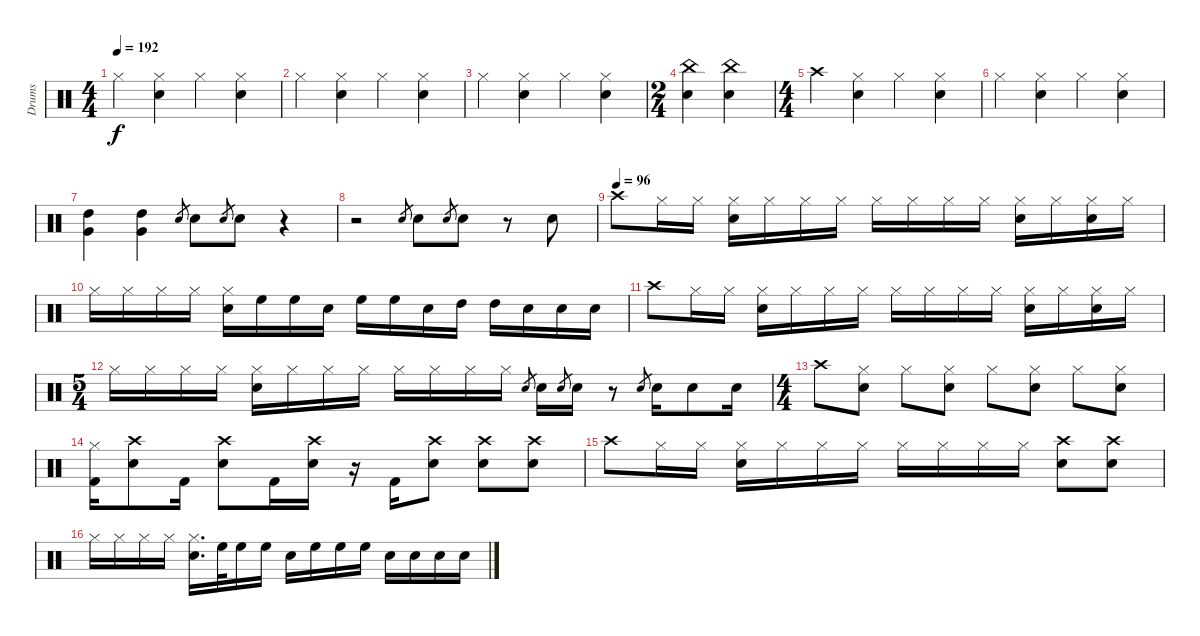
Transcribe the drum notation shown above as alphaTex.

\track ("Drums" "Drums") {instrument percussion}
\staff {score}
\articulation defaults
\ts (4 4)
\tempo 192
\clef neutral
\ks c "Hi-Hat (closed)".4{dy f}
("Hi-Hat (closed)" "Snare (hit) 2").4 "Hi-Hat (closed)".4 ("Hi-Hat (closed)" "Snare (hit) 2").4 |
"Hi-Hat (closed)".4 ("Hi-Hat (closed)" "Snare (hit) 2").4 "Hi-Hat (closed)".4 ("Hi-Hat (closed)" "Snare (hit) 2").4 |
"Hi-Hat (closed)".4 ("Hi-Hat (closed)" "Snare (hit) 2").4 "Hi-Hat (closed)".4 ("Hi-Hat (closed)" "Snare (hit) 2").4 |
\ts (2 4)
("China (hit)" "Snare (hit) 2").4 ("China (hit)" "Snare (hit) 2").4 |
\ts (4 4)
"Crash high (hit)".4 ("Hi-Hat (closed)" "Snare (hit) 2").4 "Hi-Hat (closed)".4 ("Hi-Hat (closed)" "Snare (hit) 2").4 |
"Hi-Hat (closed)".4 ("Hi-Hat (closed)" "Snare (hit) 2").4 "Hi-Hat (closed)".4 ("Hi-Hat (closed)" "Snare (hit) 2").4 |
("High Tom (hit)" "Very Low Tom (hit)").4 ("High Tom (hit)" "Very Low Tom (hit)").4 "Snare (hit) 2".8{gr} "Snare (hit) 2".8 "Snare (hit) 2".8{gr} "Snare (hit) 2".8 r.4 |
r.2 "Snare (hit) 2".8{gr} "Snare (hit) 2".8 "Snare (hit) 2".8{gr} "Snare (hit) 2".8 r.8 "Snare (hit) 2".8 |
\tempo (96)
"Crash high (hit)".8 "Hi-Hat (closed)".16 "Hi-Hat (closed)".16 ("Hi-Hat (closed)" "Snare (hit) 2").16 "Hi-Hat (closed)".16 "Hi-Hat (closed)".16 "Hi-Hat (closed)".16 "Hi-Hat (closed)".16 "Hi-Hat (closed)".16 "Hi-Hat (closed)".16 "Hi-Hat (closed)".16 ("Hi-Hat (closed)" "Snare (hit) 2").16 "Hi-Hat (closed)".16 ("Hi-Hat (closed)" "Snare (hit) 2").16 "Hi-Hat (closed)".16 |
"Hi-Hat (closed)".16 "Hi-Hat (closed)".16 "Hi-Hat (closed)".16 "Hi-Hat (closed)".16 ("Hi-Hat (closed)" "Snare (hit) 2").16 "High Floor Tom (hit)".16 "High Floor Tom (hit)".16 "Snare (hit) 2".16 "High Floor Tom (hit)".16 "High Floor Tom (hit)".16 "Snare (hit) 2".16 "High Tom (hit)".16 "High Tom (hit)".16 "Snare (hit) 2".16 "Snare (hit) 2".16 "Snare (hit) 2".16 |
"Crash high (hit)".8 "Hi-Hat (closed)".16 "Hi-Hat (closed)".16 ("Hi-Hat (closed)" "Snare (hit) 2").16 "Hi-Hat (closed)".16 "Hi-Hat (closed)".16 "Hi-Hat (closed)".16 "Hi-Hat (closed)".16 "Hi-Hat (closed)".16 "Hi-Hat (closed)".16 "Hi-Hat (closed)".16 ("Hi-Hat (closed)" "Snare (hit) 2").16 "Hi-Hat (closed)".16 ("Hi-Hat (closed)" "Snare (hit) 2").16 "Hi-Hat (closed)".16 |
\ts (5 4)
"Hi-Hat (closed)".16 "Hi-Hat (closed)".16 "Hi-Hat (closed)".16 "Hi-Hat (closed)".16 ("Hi-Hat (closed)" "Snare (hit) 2").16 "Hi-Hat (closed)".16 "Hi-Hat (closed)".16 "Hi-Hat (closed)".16 "Hi-Hat (closed)".16 "Hi-Hat (closed)".16 "Hi-Hat (closed)".16 "Hi-Hat (closed)".16 "Snare (hit) 2".8{gr} "Snare (hit) 2".16 "Snare (hit) 2".8{gr} "Snare (hit) 2".16 r.8 "Snare (hit) 2".8{gr} "Snare (hit) 2".16 "Snare (hit) 2".8 "Snare (hit) 2".16 |
\ts (4 4)
"Crash high (hit)".8 ("Hi-Hat (closed)" "Snare (hit) 2").8 "Hi-Hat (closed)".8 ("Hi-Hat (closed)" "Snare (hit) 2").8 "Hi-Hat (closed)".8 ("Hi-Hat (closed)" "Snare (hit) 2").8 "Hi-Hat (closed)".8 ("Hi-Hat (closed)" "Snare (hit) 2").8 |
("Hi-Hat (closed)" "Kick (hit) 2").16 ("Crash high (hit)" "Snare (hit) 2").8 "Kick (hit) 2".16 ("Crash high (hit)" "Snare (hit) 2").8 "Kick (hit) 2".16 ("Crash high (hit)" "Snare (hit) 2").16 r.16 "Kick (hit) 2".16 ("Crash high (hit)" "Snare (hit) 2").8 ("Crash high (hit)" "Snare (hit) 2").8 ("Crash high (hit)" "Snare (hit) 2").8 |
"Crash high (hit)".8 "Hi-Hat (closed)".16 "Hi-Hat (closed)".16 ("Hi-Hat (closed)" "Snare (hit) 2").16 "Hi-Hat (closed)".16 "Hi-Hat (closed)".16 "Hi-Hat (closed)".16 "Hi-Hat (closed)".16 "Hi-Hat (closed)".16 "Hi-Hat (closed)".16 "Hi-Hat (closed)".16 ("Crash high (hit)" "Snare (hit) 2").8 ("Crash high (hit)" "Snare (hit) 2").8 |
"Hi-Hat (closed)".16 "Hi-Hat (closed)".16 "Hi-Hat (closed)".16 "Hi-Hat (closed)".16 ("Hi-Hat (closed)" "Snare (hit) 2").16{d} "High Floor Tom (hit)".32 "High Floor Tom (hit)".16 "High Floor Tom (hit)".16 "Snare (hit) 2".16 "High Floor Tom (hit)".16 "High Floor Tom (hit)".16 "High Floor Tom (hit)".16 "Snare (hit) 2".16 "Snare (hit) 2".16 "Snare (hit) 2".16 "Snare (hit) 2".16
